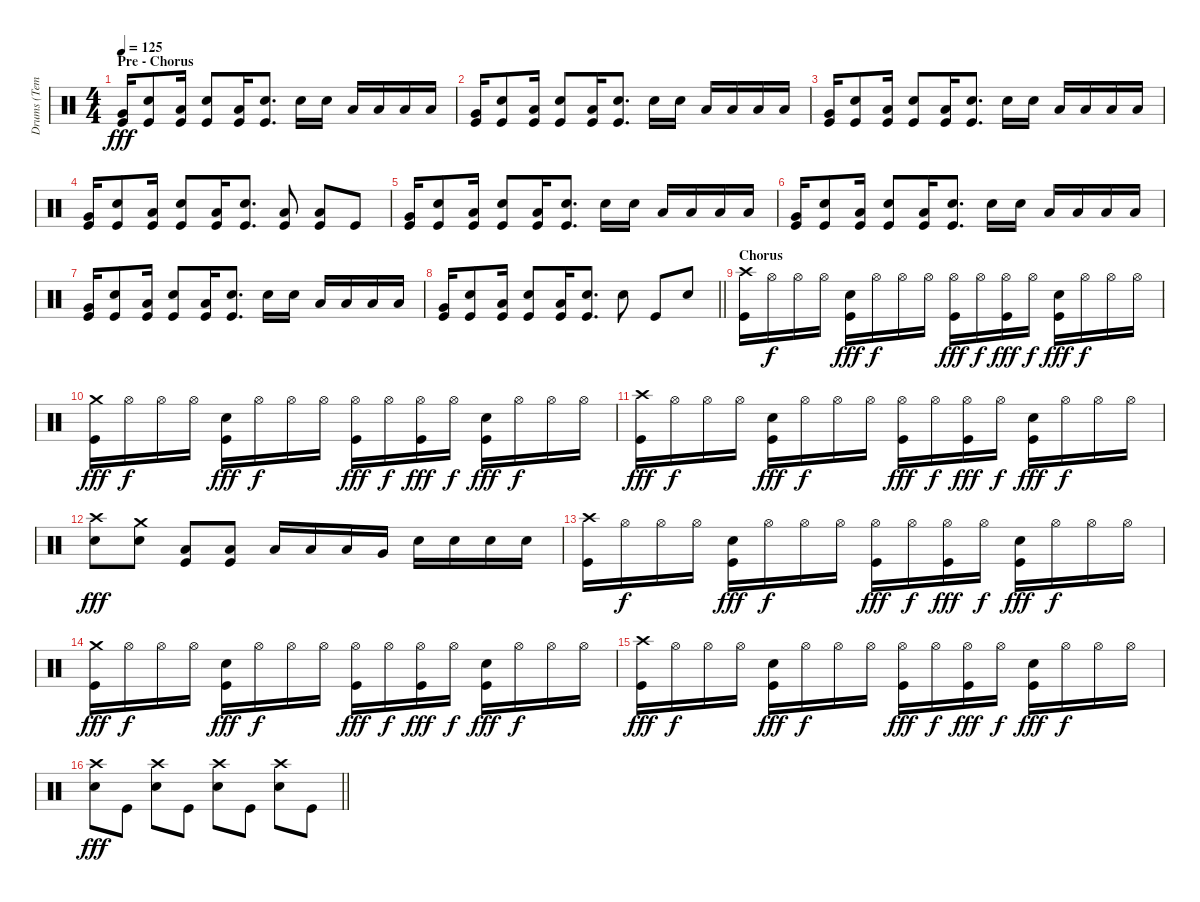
\track ("Drums (Tempesta)" "Drums (Tem") {instrument percussion}
\staff {score}
\articulation defaults
\ts (4 4)
\section ("" "Pre - Chorus")
\tempo 125
\clef neutral
\ks c
("Very Low Tom (hit)" "Kick (hit)").16{dy fff} ("Electric Snare (hit)" "Kick (hit)").8 ("Low Floor Tom (hit)" "Kick (hit)").16 ("Electric Snare (hit)" "Kick (hit)").8 ("Low Floor Tom (hit)" "Kick (hit)").16 ("Electric Snare (hit)" "Kick (hit)").8{d} "Electric Snare (hit)".16 "Electric Snare (hit)".16 "Low Tom (hit)".16 "Low Tom (hit)".16 "Low Floor Tom (hit)".16 "Low Floor Tom (hit)".16 |
("Very Low Tom (hit)" "Kick (hit)").16 ("Electric Snare (hit)" "Kick (hit)").8 ("Low Floor Tom (hit)" "Kick (hit)").16 ("Electric Snare (hit)" "Kick (hit)").8 ("Low Floor Tom (hit)" "Kick (hit)").16 ("Electric Snare (hit)" "Kick (hit)").8{d} "Electric Snare (hit)".16 "Electric Snare (hit)".16 "Low Tom (hit)".16 "Low Tom (hit)".16 "Low Floor Tom (hit)".16 "Low Floor Tom (hit)".16 |
("Very Low Tom (hit)" "Kick (hit)").16 ("Electric Snare (hit)" "Kick (hit)").8 ("Low Floor Tom (hit)" "Kick (hit)").16 ("Electric Snare (hit)" "Kick (hit)").8 ("Low Floor Tom (hit)" "Kick (hit)").16 ("Electric Snare (hit)" "Kick (hit)").8{d} "Electric Snare (hit)".16 "Electric Snare (hit)".16 "Low Tom (hit)".16 "Low Tom (hit)".16 "Low Floor Tom (hit)".16 "Low Floor Tom (hit)".16 |
("Very Low Tom (hit)" "Kick (hit)").16 ("Electric Snare (hit)" "Kick (hit)").8 ("Low Floor Tom (hit)" "Kick (hit)").16 ("Electric Snare (hit)" "Kick (hit)").8 ("Low Floor Tom (hit)" "Kick (hit)").16 ("Electric Snare (hit)" "Kick (hit)").8{d} ("Low Floor Tom (hit)" "Kick (hit)").8 ("Low Floor Tom (hit)" "Kick (hit)").8 "Kick (hit)".8 |
("Very Low Tom (hit)" "Kick (hit)").16 ("Electric Snare (hit)" "Kick (hit)").8 ("Low Floor Tom (hit)" "Kick (hit)").16 ("Electric Snare (hit)" "Kick (hit)").8 ("Low Floor Tom (hit)" "Kick (hit)").16 ("Electric Snare (hit)" "Kick (hit)").8{d} "Electric Snare (hit)".16 "Electric Snare (hit)".16 "Low Tom (hit)".16 "Low Tom (hit)".16 "Low Floor Tom (hit)".16 "Low Floor Tom (hit)".16 |
("Very Low Tom (hit)" "Kick (hit)").16 ("Electric Snare (hit)" "Kick (hit)").8 ("Low Floor Tom (hit)" "Kick (hit)").16 ("Electric Snare (hit)" "Kick (hit)").8 ("Low Floor Tom (hit)" "Kick (hit)").16 ("Electric Snare (hit)" "Kick (hit)").8{d} "Electric Snare (hit)".16 "Electric Snare (hit)".16 "Low Tom (hit)".16 "Low Tom (hit)".16 "Low Floor Tom (hit)".16 "Low Floor Tom (hit)".16 |
("Very Low Tom (hit)" "Kick (hit)").16 ("Electric Snare (hit)" "Kick (hit)").8 ("Low Floor Tom (hit)" "Kick (hit)").16 ("Electric Snare (hit)" "Kick (hit)").8 ("Low Floor Tom (hit)" "Kick (hit)").16 ("Electric Snare (hit)" "Kick (hit)").8{d} "Electric Snare (hit)".16 "Electric Snare (hit)".16 "Low Tom (hit)".16 "Low Tom (hit)".16 "Low Floor Tom (hit)".16 "Low Floor Tom (hit)".16 |
\barLineRight lightlight
("Very Low Tom (hit)" "Kick (hit)").16 ("Electric Snare (hit)" "Kick (hit)").8 ("Low Floor Tom (hit)" "Kick (hit)").16 ("Electric Snare (hit)" "Kick (hit)").8 ("Low Floor Tom (hit)" "Kick (hit)").16 ("Electric Snare (hit)" "Kick (hit)").8{d} "Electric Snare (hit)".8 "Kick (hit)".8 "Electric Snare (hit)".8 |
\section ("" "Chorus")
("Crash high (hit)" "Kick (hit)").16 "Hi-Hat (open)".16{dy f} "Hi-Hat (open)".16 "Hi-Hat (open)".16 ("Electric Snare (hit)" "Kick (hit)").16{dy fff} "Hi-Hat (open)".16{dy f} "Hi-Hat (open)".16 "Hi-Hat (open)".16 ("Hi-Hat (open)" "Kick (hit)").16{dy fff} "Hi-Hat (open)".16{dy f} ("Hi-Hat (open)" "Kick (hit)").16{dy fff} "Hi-Hat (open)".16{dy f} ("Electric Snare (hit)" "Kick (hit)").16{dy fff} "Hi-Hat (open)".16{dy f} "Hi-Hat (open)".16 "Hi-Hat (open)".16 |
("Crash medium (hit)" "Kick (hit)").16{dy fff} "Hi-Hat (open)".16{dy f} "Hi-Hat (open)".16 "Hi-Hat (open)".16 ("Electric Snare (hit)" "Kick (hit)").16{dy fff} "Hi-Hat (open)".16{dy f} "Hi-Hat (open)".16 "Hi-Hat (open)".16 ("Hi-Hat (open)" "Kick (hit)").16{dy fff} "Hi-Hat (open)".16{dy f} ("Hi-Hat (open)" "Kick (hit)").16{dy fff} "Hi-Hat (open)".16{dy f} ("Electric Snare (hit)" "Kick (hit)").16{dy fff} "Hi-Hat (open)".16{dy f} "Hi-Hat (open)".16 "Hi-Hat (open)".16 |
("Crash high (hit)" "Kick (hit)").16{dy fff} "Hi-Hat (open)".16{dy f} "Hi-Hat (open)".16 "Hi-Hat (open)".16 ("Electric Snare (hit)" "Kick (hit)").16{dy fff} "Hi-Hat (open)".16{dy f} "Hi-Hat (open)".16 "Hi-Hat (open)".16 ("Hi-Hat (open)" "Kick (hit)").16{dy fff} "Hi-Hat (open)".16{dy f} ("Hi-Hat (open)" "Kick (hit)").16{dy fff} "Hi-Hat (open)".16{dy f} ("Electric Snare (hit)" "Kick (hit)").16{dy fff} "Hi-Hat (open)".16{dy f} "Hi-Hat (open)".16 "Hi-Hat (open)".16 |
("Crash high (hit)" "Electric Snare (hit)").8{dy fff} ("Crash medium (hit)" "Electric Snare (hit)").8 ("Low Floor Tom (hit)" "Kick (hit)").8 ("Low Floor Tom (hit)" "Kick (hit)").8 "Low Tom (hit)".16 "Low Tom (hit)".16 "Low Tom (hit)".16 "Very Low Tom (hit)".16 "Electric Snare (hit)".16 "Electric Snare (hit)".16 "Electric Snare (hit)".16 "Electric Snare (hit)".16 |
("Crash high (hit)" "Kick (hit)").16 "Hi-Hat (open)".16{dy f} "Hi-Hat (open)".16 "Hi-Hat (open)".16 ("Electric Snare (hit)" "Kick (hit)").16{dy fff} "Hi-Hat (open)".16{dy f} "Hi-Hat (open)".16 "Hi-Hat (open)".16 ("Hi-Hat (open)" "Kick (hit)").16{dy fff} "Hi-Hat (open)".16{dy f} ("Hi-Hat (open)" "Kick (hit)").16{dy fff} "Hi-Hat (open)".16{dy f} ("Electric Snare (hit)" "Kick (hit)").16{dy fff} "Hi-Hat (open)".16{dy f} "Hi-Hat (open)".16 "Hi-Hat (open)".16 |
("Crash medium (hit)" "Kick (hit)").16{dy fff} "Hi-Hat (open)".16{dy f} "Hi-Hat (open)".16 "Hi-Hat (open)".16 ("Electric Snare (hit)" "Kick (hit)").16{dy fff} "Hi-Hat (open)".16{dy f} "Hi-Hat (open)".16 "Hi-Hat (open)".16 ("Hi-Hat (open)" "Kick (hit)").16{dy fff} "Hi-Hat (open)".16{dy f} ("Hi-Hat (open)" "Kick (hit)").16{dy fff} "Hi-Hat (open)".16{dy f} ("Electric Snare (hit)" "Kick (hit)").16{dy fff} "Hi-Hat (open)".16{dy f} "Hi-Hat (open)".16 "Hi-Hat (open)".16 |
("Crash high (hit)" "Kick (hit)").16{dy fff} "Hi-Hat (open)".16{dy f} "Hi-Hat (open)".16 "Hi-Hat (open)".16 ("Electric Snare (hit)" "Kick (hit)").16{dy fff} "Hi-Hat (open)".16{dy f} "Hi-Hat (open)".16 "Hi-Hat (open)".16 ("Hi-Hat (open)" "Kick (hit)").16{dy fff} "Hi-Hat (open)".16{dy f} ("Hi-Hat (open)" "Kick (hit)").16{dy fff} "Hi-Hat (open)".16{dy f} ("Electric Snare (hit)" "Kick (hit)").16{dy fff} "Hi-Hat (open)".16{dy f} "Hi-Hat (open)".16 "Hi-Hat (open)".16 |
\barLineRight lightlight
("Crash high (hit)" "Electric Snare (hit)").8{dy fff} "Kick (hit)".8 ("Crash high (hit)" "Electric Snare (hit)").8 "Kick (hit)".8 ("Crash high (hit)" "Electric Snare (hit)").8 "Kick (hit)".8 ("Crash high (hit)" "Electric Snare (hit)").8 "Kick (hit)".8
